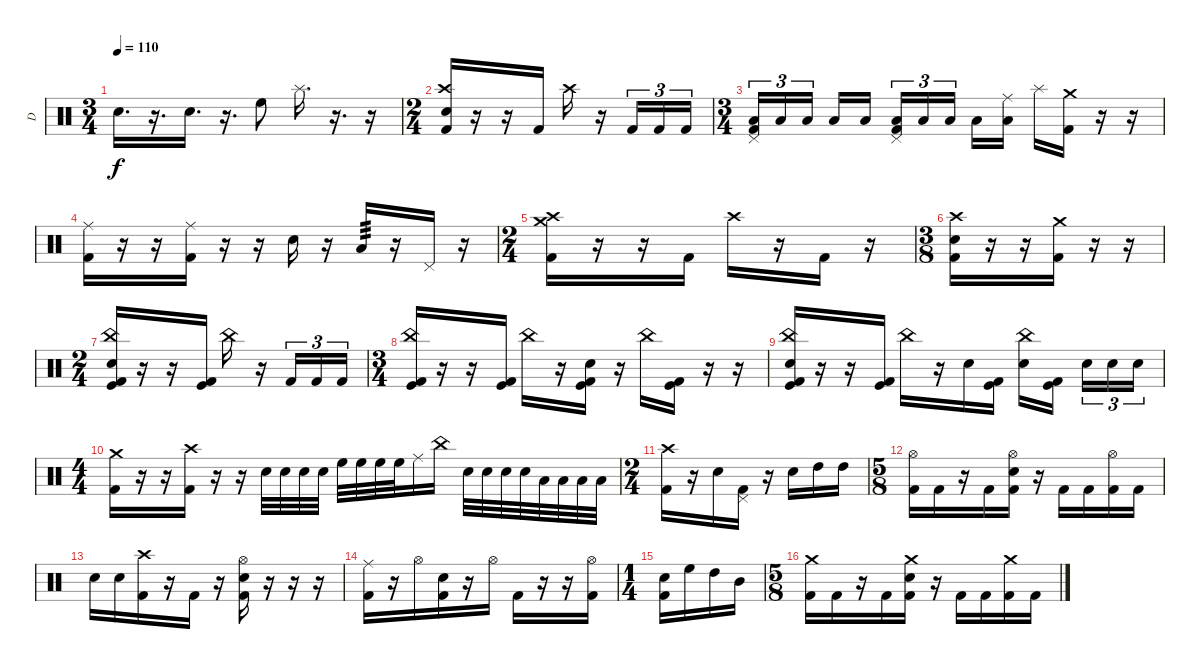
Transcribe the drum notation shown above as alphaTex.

\track ("D" "D") {instrument percussion}
\staff {score}
\articulation defaults
\ts (3 4)
\tempo 110
\clef neutral
\ks c "Electric Snare (hit)".16{d dy f}
r.16{d} "Electric Snare (hit)".16{d} r.16{d} "High Floor Tom (hit)".8 "Splash (hit)".16{d} r.16{d} r.16 |
\ts (2 4)
("Crash high (hit)" "Electric Snare (hit)" "Kick (hit) 2").16 r.16 r.16 "Kick (hit) 2".16 "Crash high (hit)".16 r.16 "Kick (hit) 2".16{tu (3 2)} "Kick (hit) 2".16{tu (3 2)} "Kick (hit) 2".16{tu (3 2)} |
\ts (3 4)
("Kick (hit) 2" "Pedal Hi-Hat (hit)" "Low Tom (hit)").16{tu (3 2)} "Low Tom (hit)".16{tu (3 2)} "Low Tom (hit)".16{tu (3 2) beam splitsecondary} "Low Tom (hit)".16 "Low Tom (hit)".16 ("Kick (hit) 2" "Pedal Hi-Hat (hit)" "Low Floor Tom (hit)").16{tu (3 2)} "Low Floor Tom (hit)".16{tu (3 2)} "Low Floor Tom (hit)".16{tu (3 2) beam splitsecondary} "Low Floor Tom (hit)".16 ("Ride (middle)" "Low Floor Tom (hit)").16 "Splash (hit)".16 ("Crash medium (hit)" "Kick (hit) 2").16 r.16 r.16 |
("Kick (hit) 2" "Ride (middle)").16 r.16 r.16 ("Kick (hit) 2" "Ride (middle)").16 r.16 r.16 "Electric Snare (hit)".16 r.16 "Low Tom (hit)".16{tp 3} r.16 "Pedal Hi-Hat (hit)".16 r.16 |
\ts (2 4)
("Crash high (hit)" "Crash medium (hit)" "Kick (hit) 2").16 r.16 r.16 "Kick (hit) 2".16 "Crash high (hit)".16 r.16 "Kick (hit) 2".16 r.16 |
\ts (3 8)
("Crash high (hit)" "Electric Snare (hit)" "Kick (hit) 2").16 r.16 r.16 ("Crash medium (hit)" "Kick (hit) 2").16 r.16 r.16 |
\ts (2 4)
("China (hit)" "Electric Snare (hit)" "Kick (hit)" "Kick (hit) 2").16 r.16 r.16 ("Kick (hit)" "Kick (hit) 2").16 "China (hit)".16 r.16 "Kick (hit) 2".16{tu (3 2)} "Kick (hit) 2".16{tu (3 2)} "Kick (hit) 2".16{tu (3 2)} |
\ts (3 4)
("China (hit)" "Kick (hit)" "Kick (hit) 2").16 r.16 r.16 ("Kick (hit)" "Kick (hit) 2").16 "China (hit)".16 r.16 ("Electric Snare (hit)" "Kick (hit)" "Kick (hit) 2").16 r.16 "China (hit)".16 ("Kick (hit)" "Kick (hit) 2").16 r.16 r.16 |
("China (hit)" "Electric Snare (hit)" "Kick (hit)" "Kick (hit) 2").16 r.16 r.16 ("Kick (hit)" "Kick (hit) 2").16 "China (hit)".16 r.16 "Electric Snare (hit)".16 ("Kick (hit)" "Kick (hit) 2").16 ("China (hit)" "Electric Snare (hit)").16 ("Kick (hit)" "Kick (hit) 2").16{beam splitsecondary} "Electric Snare (hit)".16{tu (3 2)} "Electric Snare (hit)".16{tu (3 2)} "Electric Snare (hit)".16{tu (3 2)} |
\ts (4 4)
("Crash medium (hit)" "Kick (hit) 2").16 r.16 r.16 ("Crash high (hit)" "Kick (hit) 2").16 r.16 r.16 "Electric Snare (hit)".32 "Electric Snare (hit)".32 "Electric Snare (hit)".32 "Electric Snare (hit)".32 "High Floor Tom (hit)".32 "High Floor Tom (hit)".32 "High Floor Tom (hit)".32 "High Floor Tom (hit)".32 "Ride (middle)".16 "China (hit)".16 "Electric Snare (hit)".32 "Electric Snare (hit)".32 "Electric Snare (hit)".32 "Electric Snare (hit)".32 "Low Floor Tom (hit)".32 "Low Floor Tom (hit)".32 "Low Floor Tom (hit)".32 "Low Floor Tom (hit)".32 |
\ts (2 4)
("Crash high (hit)" "Kick (hit) 2").16 r.16 "Electric Snare (hit)".16 ("Pedal Hi-Hat (hit)" "Kick (hit) 2").16 r.16 "Electric Snare (hit)".16 "High Tom (hit)".16 "High Tom (hit)".16 |
\ts (5 8)
("Hi-Hat (open)" "Kick (hit) 2").16 "Kick (hit) 2".16 r.16 "Kick (hit) 2".16 ("Electric Snare (hit)" "Hi-Hat (open)" "Kick (hit) 2").16 r.16 "Kick (hit) 2".16 "Kick (hit) 2".16 ("Hi-Hat (open)" "Kick (hit) 2").16 "Kick (hit) 2".16 |
"Electric Snare (hit)".16 "Electric Snare (hit)".16 ("Crash high (hit)" "Kick (hit) 2").16 r.16 "Kick (hit) 2".16 r.16 ("Electric Snare (hit)" "Hi-Hat (open)" "Kick (hit) 2").16 r.16 r.16 r.16 |
("Ride (middle)" "Kick (hit) 2").16 r.16 "Hi-Hat (open)".16 ("Electric Snare (hit)" "Kick (hit) 2").16 r.16 "Hi-Hat (open)".16 "Kick (hit) 2".16 r.16 r.16 ("Hi-Hat (open)" "Kick (hit) 2").16 |
\ts (1 4)
("Electric Snare (hit)" "Kick (hit) 2").16 "High Floor Tom (hit)".16 "High Tom (hit)".16 "Mid Tom (hit)".16 |
\ts (5 8)
("Crash medium (hit)" "Kick (hit) 2").16 "Kick (hit) 2".16 r.16 "Kick (hit) 2".16 ("Electric Snare (hit)" "Crash medium (hit)" "Kick (hit) 2").16 r.16 "Kick (hit) 2".16 "Kick (hit) 2".16 ("Crash medium (hit)" "Kick (hit) 2").16 "Kick (hit) 2".16
